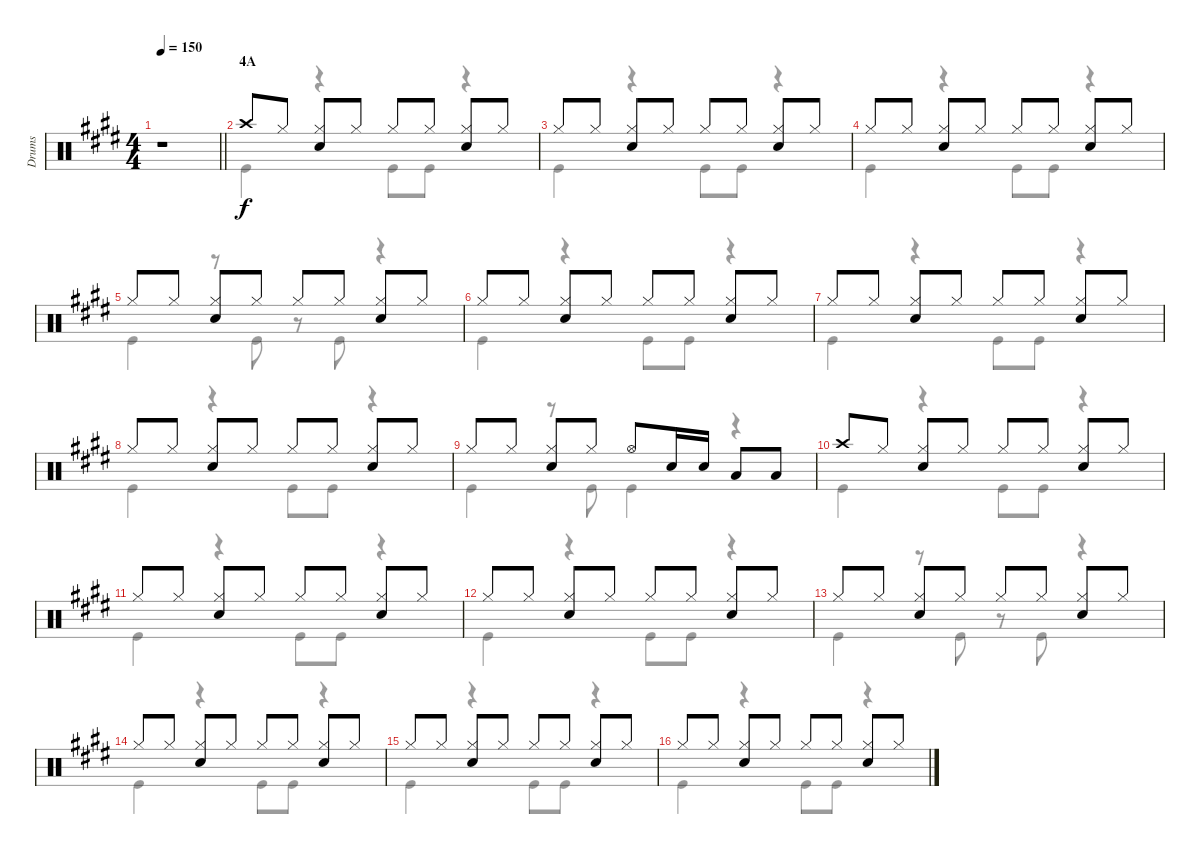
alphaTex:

\track ("Drums" "Drums") {instrument percussion}
\staff {score}
\articulation defaults
\voice
\ts (4 4)
\tempo 150
\clef neutral
\barLineRight lightlight
\ks e
r.1{dy f} |
\section ("" "4A")
"Crash high (hit)".8 "Hi-Hat (closed)".8 ("Hi-Hat (closed)" "Snare (hit) 2").8 "Hi-Hat (closed)".8 "Hi-Hat (closed)".8 "Hi-Hat (closed)".8 ("Hi-Hat (closed)" "Snare (hit) 2").8 "Hi-Hat (closed)".8 |
"Hi-Hat (closed)".8 "Hi-Hat (closed)".8 ("Hi-Hat (closed)" "Snare (hit) 2").8 "Hi-Hat (closed)".8 "Hi-Hat (closed)".8 "Hi-Hat (closed)".8 ("Hi-Hat (closed)" "Snare (hit) 2").8 "Hi-Hat (closed)".8 |
"Hi-Hat (closed)".8 "Hi-Hat (closed)".8 ("Hi-Hat (closed)" "Snare (hit) 2").8 "Hi-Hat (closed)".8 "Hi-Hat (closed)".8 "Hi-Hat (closed)".8 ("Hi-Hat (closed)" "Snare (hit) 2").8 "Hi-Hat (closed)".8 |
"Hi-Hat (closed)".8 "Hi-Hat (closed)".8 ("Hi-Hat (closed)" "Snare (hit) 2").8 "Hi-Hat (closed)".8 "Hi-Hat (closed)".8 "Hi-Hat (closed)".8 ("Hi-Hat (closed)" "Snare (hit) 2").8 "Hi-Hat (closed)".8 |
"Hi-Hat (closed)".8 "Hi-Hat (closed)".8 ("Hi-Hat (closed)" "Snare (hit) 2").8 "Hi-Hat (closed)".8 "Hi-Hat (closed)".8 "Hi-Hat (closed)".8 ("Hi-Hat (closed)" "Snare (hit) 2").8 "Hi-Hat (closed)".8 |
"Hi-Hat (closed)".8 "Hi-Hat (closed)".8 ("Hi-Hat (closed)" "Snare (hit) 2").8 "Hi-Hat (closed)".8 "Hi-Hat (closed)".8 "Hi-Hat (closed)".8 ("Hi-Hat (closed)" "Snare (hit) 2").8 "Hi-Hat (closed)".8 |
"Hi-Hat (closed)".8 "Hi-Hat (closed)".8 ("Hi-Hat (closed)" "Snare (hit) 2").8 "Hi-Hat (closed)".8 "Hi-Hat (closed)".8 "Hi-Hat (closed)".8 ("Hi-Hat (closed)" "Snare (hit) 2").8 "Hi-Hat (closed)".8 |
"Hi-Hat (closed)".8 "Hi-Hat (closed)".8 ("Hi-Hat (closed)" "Snare (hit) 2").8 "Hi-Hat (closed)".8 "Hi-Hat (open)".8 "Snare (hit) 2".16 "Snare (hit) 2".16 "Low Tom (hit)".8 "Low Tom (hit)".8 |
"Crash high (hit)".8 "Hi-Hat (closed)".8 ("Hi-Hat (closed)" "Snare (hit) 2").8 "Hi-Hat (closed)".8 "Hi-Hat (closed)".8 "Hi-Hat (closed)".8 ("Hi-Hat (closed)" "Snare (hit) 2").8 "Hi-Hat (closed)".8 |
"Hi-Hat (closed)".8 "Hi-Hat (closed)".8 ("Hi-Hat (closed)" "Snare (hit) 2").8 "Hi-Hat (closed)".8 "Hi-Hat (closed)".8 "Hi-Hat (closed)".8 ("Hi-Hat (closed)" "Snare (hit) 2").8 "Hi-Hat (closed)".8 |
"Hi-Hat (closed)".8 "Hi-Hat (closed)".8 ("Hi-Hat (closed)" "Snare (hit) 2").8 "Hi-Hat (closed)".8 "Hi-Hat (closed)".8 "Hi-Hat (closed)".8 ("Hi-Hat (closed)" "Snare (hit) 2").8 "Hi-Hat (closed)".8 |
"Hi-Hat (closed)".8 "Hi-Hat (closed)".8 ("Hi-Hat (closed)" "Snare (hit) 2").8 "Hi-Hat (closed)".8 "Hi-Hat (closed)".8 "Hi-Hat (closed)".8 ("Hi-Hat (closed)" "Snare (hit) 2").8 "Hi-Hat (closed)".8 |
"Hi-Hat (closed)".8 "Hi-Hat (closed)".8 ("Hi-Hat (closed)" "Snare (hit) 2").8 "Hi-Hat (closed)".8 "Hi-Hat (closed)".8 "Hi-Hat (closed)".8 ("Hi-Hat (closed)" "Snare (hit) 2").8 "Hi-Hat (closed)".8 |
"Hi-Hat (closed)".8 "Hi-Hat (closed)".8 ("Hi-Hat (closed)" "Snare (hit) 2").8 "Hi-Hat (closed)".8 "Hi-Hat (closed)".8 "Hi-Hat (closed)".8 ("Hi-Hat (closed)" "Snare (hit) 2").8 "Hi-Hat (closed)".8 |
"Hi-Hat (closed)".8 "Hi-Hat (closed)".8 ("Hi-Hat (closed)" "Snare (hit) 2").8 "Hi-Hat (closed)".8 "Hi-Hat (closed)".8 "Hi-Hat (closed)".8 ("Hi-Hat (closed)" "Snare (hit) 2").8 "Hi-Hat (closed)".8
\voice
\clef neutral
\ottava regular
\simile none
\barLineRight lightlight
\ks e
r.1{dy f} |
"Kick (hit)".4 r.4 "Kick (hit)".8 "Kick (hit)".8 r.4 |
"Kick (hit)".4 r.4 "Kick (hit)".8 "Kick (hit)".8 r.4 |
"Kick (hit)".4 r.4 "Kick (hit)".8 "Kick (hit)".8 r.4 |
"Kick (hit)".4 r.8 "Kick (hit)".8 r.8 "Kick (hit)".8 r.4 |
"Kick (hit)".4 r.4 "Kick (hit)".8 "Kick (hit)".8 r.4 |
"Kick (hit)".4 r.4 "Kick (hit)".8 "Kick (hit)".8 r.4 |
"Kick (hit)".4 r.4 "Kick (hit)".8 "Kick (hit)".8 r.4 |
"Kick (hit)".4 r.8 "Kick (hit)".8 "Kick (hit)".4 r.4 |
"Kick (hit)".4 r.4 "Kick (hit)".8 "Kick (hit)".8 r.4 |
"Kick (hit)".4 r.4 "Kick (hit)".8 "Kick (hit)".8 r.4 |
"Kick (hit)".4 r.4 "Kick (hit)".8 "Kick (hit)".8 r.4 |
"Kick (hit)".4 r.8 "Kick (hit)".8 r.8 "Kick (hit)".8 r.4 |
"Kick (hit)".4 r.4 "Kick (hit)".8 "Kick (hit)".8 r.4 |
"Kick (hit)".4 r.4 "Kick (hit)".8 "Kick (hit)".8 r.4 |
"Kick (hit)".4 r.4 "Kick (hit)".8 "Kick (hit)".8 r.4
